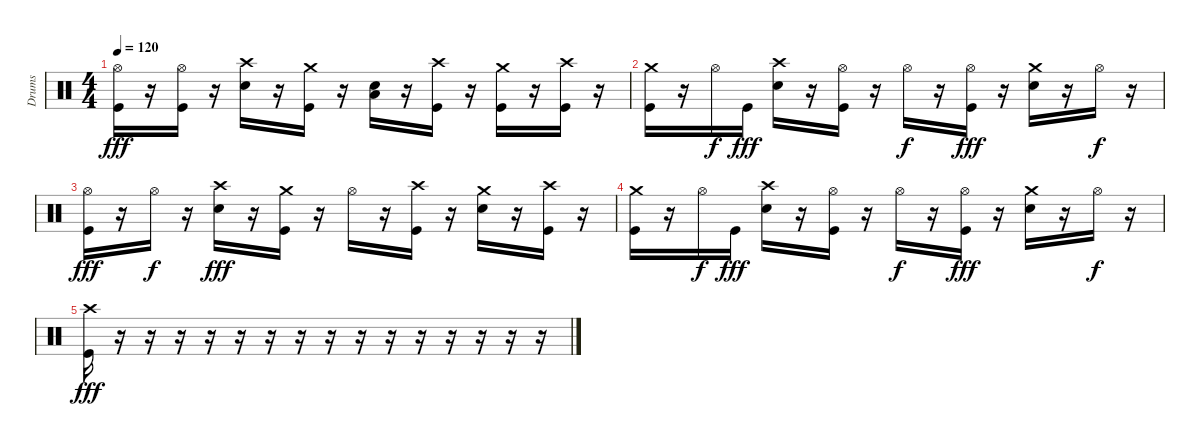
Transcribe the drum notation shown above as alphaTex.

\track ("Drums" "Drums") {instrument percussion}
\staff {score}
\articulation defaults
\ts (4 4)
\tempo 120
\clef neutral
\ks c
("Hi-Hat (open)" "Kick (hit)").16{dy fff} r.16 ("Hi-Hat (open)" "Kick (hit)").16 r.16 ("Crash high (hit)" "Electric Snare (hit)").16 r.16 ("Crash medium (hit)" "Kick (hit)").16 r.16 ("Electric Snare (hit)" "Low Floor Tom (hit)").16 r.16 ("Kick (hit)" "Crash high (hit)").16 r.16 ("Crash medium (hit)" "Kick (hit)").16 r.16 ("Kick (hit)" "Crash high (hit)").16 r.16 |
("Crash medium (hit)" "Kick (hit)").16 r.16 "Hi-Hat (open)".16{dy f} "Kick (hit)".16{dy fff} ("Crash high (hit)" "Electric Snare (hit)").16 r.16 ("Hi-Hat (open)" "Kick (hit)").16 r.16 "Hi-Hat (open)".16{dy f} r.16 ("Hi-Hat (open)" "Kick (hit)").16{dy fff} r.16 ("Crash medium (hit)" "Electric Snare (hit)").16 r.16 "Hi-Hat (open)".16{dy f} r.16 |
("Hi-Hat (open)" "Kick (hit)").16{dy fff} r.16 "Hi-Hat (open)".16{dy f} r.16 ("Crash high (hit)" "Electric Snare (hit)").16{dy fff} r.16 ("Crash medium (hit)" "Kick (hit)").16 r.16 "Hi-Hat (open)".16 r.16 ("Kick (hit)" "Crash high (hit)").16 r.16 ("Crash medium (hit)" "Electric Snare (hit)").16 r.16 ("Kick (hit)" "Crash high (hit)").16 r.16 |
("Crash medium (hit)" "Kick (hit)").16 r.16 "Hi-Hat (open)".16{dy f} "Kick (hit)".16{dy fff} ("Crash high (hit)" "Electric Snare (hit)").16 r.16 ("Hi-Hat (open)" "Kick (hit)").16 r.16 "Hi-Hat (open)".16{dy f} r.16 ("Hi-Hat (open)" "Kick (hit)").16{dy fff} r.16 ("Crash medium (hit)" "Electric Snare (hit)").16 r.16 "Hi-Hat (open)".16{dy f} r.16 |
("Crash high (hit)" "Kick (hit)").16{dy fff} r.16 r.16 r.16 r.16 r.16 r.16 r.16 r.16 r.16 r.16 r.16 r.16 r.16 r.16 r.16
